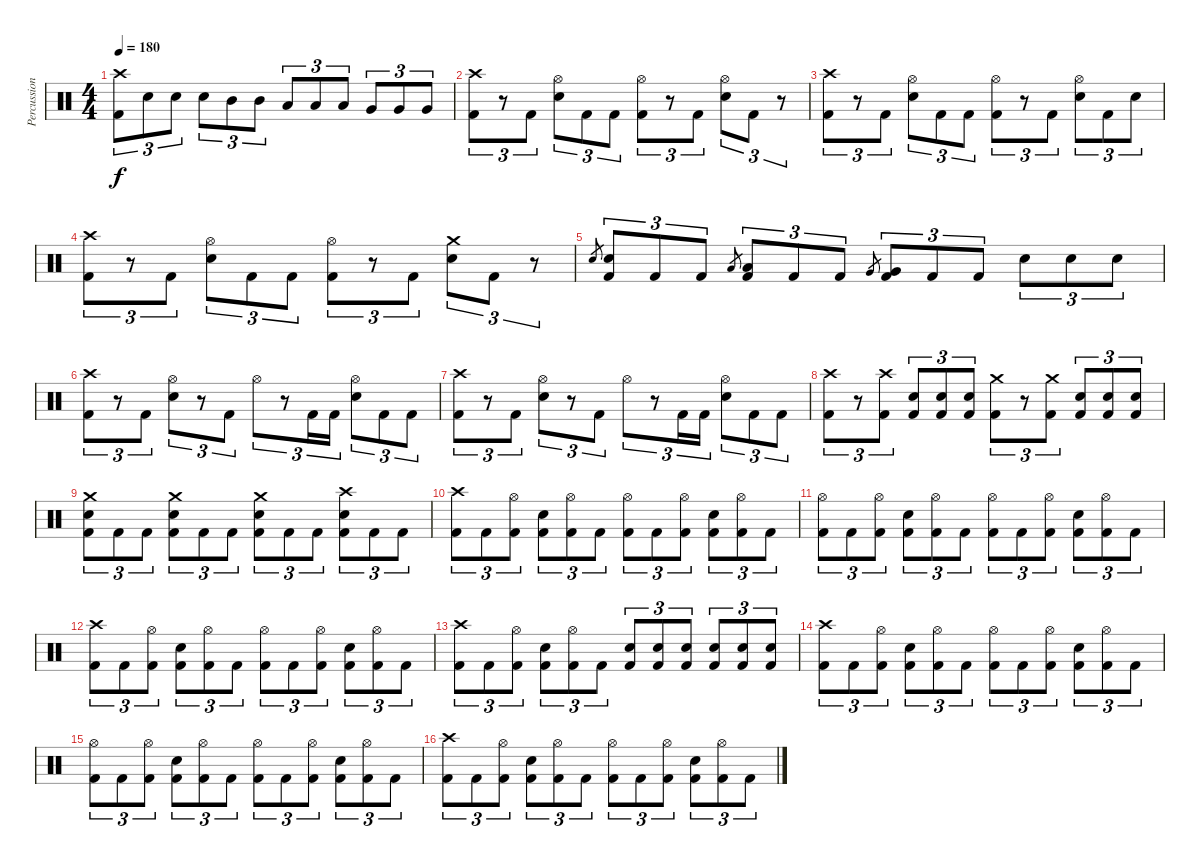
\track ("Percussion" "Percussion") {instrument percussion}
\staff {score}
\articulation defaults
\ts (4 4)
\tempo 180
\clef neutral
\ks c
("Crash high (hit)" "Kick (hit) 2").8{tu (3 2) dy f} "Electric Snare (hit)".8{tu (3 2)} "Electric Snare (hit)".8{tu (3 2)} "Electric Snare (hit)".8{tu (3 2)} "Mid Tom (hit)".8{tu (3 2)} "Mid Tom (hit)".8{tu (3 2)} "Low Tom (hit)".8{tu (3 2)} "Low Tom (hit)".8{tu (3 2)} "Low Tom (hit)".8{tu (3 2)} "Very Low Tom (hit)".8{tu (3 2)} "Very Low Tom (hit)".8{tu (3 2)} "Very Low Tom (hit)".8{tu (3 2)} |
("Crash high (hit)" "Kick (hit) 2").8{tu (3 2)} r.8{tu (3 2)} "Kick (hit) 2".8{tu (3 2)} ("Hi-Hat (open)" "Electric Snare (hit)").8{tu (3 2)} "Kick (hit) 2".8{tu (3 2)} "Kick (hit) 2".8{tu (3 2)} ("Hi-Hat (open)" "Kick (hit) 2").8{tu (3 2)} r.8{tu (3 2)} "Kick (hit) 2".8{tu (3 2)} ("Hi-Hat (open)" "Electric Snare (hit)").8{tu (3 2)} "Kick (hit) 2".8{tu (3 2)} r.8{tu (3 2)} |
("Crash high (hit)" "Kick (hit) 2").8{tu (3 2)} r.8{tu (3 2)} "Kick (hit) 2".8{tu (3 2)} ("Hi-Hat (open)" "Electric Snare (hit)").8{tu (3 2)} "Kick (hit) 2".8{tu (3 2)} "Kick (hit) 2".8{tu (3 2)} ("Hi-Hat (open)" "Kick (hit) 2").8{tu (3 2)} r.8{tu (3 2)} "Kick (hit) 2".8{tu (3 2)} ("Hi-Hat (open)" "Electric Snare (hit)").8{tu (3 2)} "Kick (hit) 2".8{tu (3 2)} "Electric Snare (hit)".8{tu (3 2)} |
("Crash high (hit)" "Kick (hit) 2").8{tu (3 2)} r.8{tu (3 2)} "Kick (hit) 2".8{tu (3 2)} ("Hi-Hat (open)" "Electric Snare (hit)").8{tu (3 2)} "Kick (hit) 2".8{tu (3 2)} "Kick (hit) 2".8{tu (3 2)} ("Hi-Hat (open)" "Kick (hit) 2").8{tu (3 2)} r.8{tu (3 2)} "Kick (hit) 2".8{tu (3 2)} ("Crash medium (hit)" "Electric Snare (hit)").8{tu (3 2)} "Kick (hit) 2".8{tu (3 2)} r.8{tu (3 2)} |
"Electric Snare (hit)".8{gr} ("Electric Snare (hit)" "Kick (hit) 2").8{tu (3 2)} "Kick (hit) 2".8{tu (3 2)} "Kick (hit) 2".8{tu (3 2)} "Low Tom (hit)".8{gr} ("Low Tom (hit)" "Kick (hit) 2").8{tu (3 2)} "Kick (hit) 2".8{tu (3 2)} "Kick (hit) 2".8{tu (3 2)} "Very Low Tom (hit)".8{gr} ("Very Low Tom (hit)" "Kick (hit) 2").8{tu (3 2)} "Kick (hit) 2".8{tu (3 2)} "Kick (hit) 2".8{tu (3 2)} "Electric Snare (hit)".8{tu (3 2)} "Electric Snare (hit)".8{tu (3 2)} "Electric Snare (hit)".8{tu (3 2)} |
("Crash high (hit)" "Kick (hit) 2").8{tu (3 2)} r.8{tu (3 2)} "Kick (hit) 2".8{tu (3 2)} ("Hi-Hat (open)" "Electric Snare (hit)").8{tu (3 2)} r.8{tu (3 2)} "Kick (hit) 2".8{tu (3 2)} "Hi-Hat (open)".8{tu (3 2)} r.8{tu (3 2)} "Kick (hit) 2".16{tu (3 2)} "Kick (hit) 2".16{tu (3 2)} ("Hi-Hat (open)" "Electric Snare (hit)").8{tu (3 2)} "Kick (hit) 2".8{tu (3 2)} "Kick (hit) 2".8{tu (3 2)} |
("Crash high (hit)" "Kick (hit) 2").8{tu (3 2)} r.8{tu (3 2)} "Kick (hit) 2".8{tu (3 2)} ("Hi-Hat (open)" "Electric Snare (hit)").8{tu (3 2)} r.8{tu (3 2)} "Kick (hit) 2".8{tu (3 2)} "Hi-Hat (open)".8{tu (3 2)} r.8{tu (3 2)} "Kick (hit) 2".16{tu (3 2)} "Kick (hit) 2".16{tu (3 2)} ("Hi-Hat (open)" "Electric Snare (hit)").8{tu (3 2)} "Kick (hit) 2".8{tu (3 2)} "Kick (hit) 2".8{tu (3 2)} |
("Crash high (hit)" "Kick (hit) 2").8{tu (3 2)} r.8{tu (3 2)} ("Crash high (hit)" "Kick (hit) 2").8{tu (3 2)} ("Electric Snare (hit)" "Kick (hit) 2").8{tu (3 2)} ("Electric Snare (hit)" "Kick (hit) 2").8{tu (3 2)} ("Electric Snare (hit)" "Kick (hit) 2").8{tu (3 2)} ("Crash medium (hit)" "Kick (hit) 2").8{tu (3 2)} r.8{tu (3 2)} ("Crash medium (hit)" "Kick (hit) 2").8{tu (3 2)} ("Electric Snare (hit)" "Kick (hit) 2").8{tu (3 2)} ("Electric Snare (hit)" "Kick (hit) 2").8{tu (3 2)} ("Electric Snare (hit)" "Kick (hit) 2").8{tu (3 2)} |
("Crash medium (hit)" "Electric Snare (hit)" "Kick (hit) 2").8{tu (3 2)} "Kick (hit) 2".8{tu (3 2)} "Kick (hit) 2".8{tu (3 2)} ("Crash medium (hit)" "Electric Snare (hit)" "Kick (hit) 2").8{tu (3 2)} "Kick (hit) 2".8{tu (3 2)} "Kick (hit) 2".8{tu (3 2)} ("Crash medium (hit)" "Electric Snare (hit)" "Kick (hit) 2").8{tu (3 2)} "Kick (hit) 2".8{tu (3 2)} "Kick (hit) 2".8{tu (3 2)} ("Crash high (hit)" "Electric Snare (hit)" "Kick (hit) 2").8{tu (3 2)} "Kick (hit) 2".8{tu (3 2)} "Kick (hit) 2".8{tu (3 2)} |
("Crash high (hit)" "Kick (hit) 2").8{tu (3 2)} "Kick (hit) 2".8{tu (3 2)} ("Hi-Hat (open)" "Kick (hit) 2").8{tu (3 2)} ("Electric Snare (hit)" "Kick (hit) 2").8{tu (3 2)} ("Hi-Hat (open)" "Kick (hit) 2").8{tu (3 2)} "Kick (hit) 2".8{tu (3 2)} ("Hi-Hat (open)" "Kick (hit) 2").8{tu (3 2)} "Kick (hit) 2".8{tu (3 2)} ("Hi-Hat (open)" "Kick (hit) 2").8{tu (3 2)} ("Electric Snare (hit)" "Kick (hit) 2").8{tu (3 2)} ("Hi-Hat (open)" "Kick (hit) 2").8{tu (3 2)} "Kick (hit) 2".8{tu (3 2)} |
("Hi-Hat (open)" "Kick (hit) 2").8{tu (3 2)} "Kick (hit) 2".8{tu (3 2)} ("Hi-Hat (open)" "Kick (hit) 2").8{tu (3 2)} ("Electric Snare (hit)" "Kick (hit) 2").8{tu (3 2)} ("Hi-Hat (open)" "Kick (hit) 2").8{tu (3 2)} "Kick (hit) 2".8{tu (3 2)} ("Hi-Hat (open)" "Kick (hit) 2").8{tu (3 2)} "Kick (hit) 2".8{tu (3 2)} ("Hi-Hat (open)" "Kick (hit) 2").8{tu (3 2)} ("Electric Snare (hit)" "Kick (hit) 2").8{tu (3 2)} ("Hi-Hat (open)" "Kick (hit) 2").8{tu (3 2)} "Kick (hit) 2".8{tu (3 2)} |
("Crash high (hit)" "Kick (hit) 2").8{tu (3 2)} "Kick (hit) 2".8{tu (3 2)} ("Hi-Hat (open)" "Kick (hit) 2").8{tu (3 2)} ("Electric Snare (hit)" "Kick (hit) 2").8{tu (3 2)} ("Hi-Hat (open)" "Kick (hit) 2").8{tu (3 2)} "Kick (hit) 2".8{tu (3 2)} ("Hi-Hat (open)" "Kick (hit) 2").8{tu (3 2)} "Kick (hit) 2".8{tu (3 2)} ("Hi-Hat (open)" "Kick (hit) 2").8{tu (3 2)} ("Electric Snare (hit)" "Kick (hit) 2").8{tu (3 2)} ("Hi-Hat (open)" "Kick (hit) 2").8{tu (3 2)} "Kick (hit) 2".8{tu (3 2)} |
("Crash high (hit)" "Kick (hit) 2").8{tu (3 2)} "Kick (hit) 2".8{tu (3 2)} ("Hi-Hat (open)" "Kick (hit) 2").8{tu (3 2)} ("Electric Snare (hit)" "Kick (hit) 2").8{tu (3 2)} ("Hi-Hat (open)" "Kick (hit) 2").8{tu (3 2)} "Kick (hit) 2".8{tu (3 2)} ("Electric Snare (hit)" "Kick (hit) 2").8{tu (3 2)} ("Electric Snare (hit)" "Kick (hit) 2").8{tu (3 2)} ("Electric Snare (hit)" "Kick (hit) 2").8{tu (3 2)} ("Electric Snare (hit)" "Kick (hit) 2").8{tu (3 2)} ("Electric Snare (hit)" "Kick (hit) 2").8{tu (3 2)} ("Electric Snare (hit)" "Kick (hit) 2").8{tu (3 2)} |
("Crash high (hit)" "Kick (hit) 2").8{tu (3 2)} "Kick (hit) 2".8{tu (3 2)} ("Hi-Hat (open)" "Kick (hit) 2").8{tu (3 2)} ("Electric Snare (hit)" "Kick (hit) 2").8{tu (3 2)} ("Hi-Hat (open)" "Kick (hit) 2").8{tu (3 2)} "Kick (hit) 2".8{tu (3 2)} ("Hi-Hat (open)" "Kick (hit) 2").8{tu (3 2)} "Kick (hit) 2".8{tu (3 2)} ("Hi-Hat (open)" "Kick (hit) 2").8{tu (3 2)} ("Electric Snare (hit)" "Kick (hit) 2").8{tu (3 2)} ("Hi-Hat (open)" "Kick (hit) 2").8{tu (3 2)} "Kick (hit) 2".8{tu (3 2)} |
("Hi-Hat (open)" "Kick (hit) 2").8{tu (3 2)} "Kick (hit) 2".8{tu (3 2)} ("Hi-Hat (open)" "Kick (hit) 2").8{tu (3 2)} ("Electric Snare (hit)" "Kick (hit) 2").8{tu (3 2)} ("Hi-Hat (open)" "Kick (hit) 2").8{tu (3 2)} "Kick (hit) 2".8{tu (3 2)} ("Hi-Hat (open)" "Kick (hit) 2").8{tu (3 2)} "Kick (hit) 2".8{tu (3 2)} ("Hi-Hat (open)" "Kick (hit) 2").8{tu (3 2)} ("Electric Snare (hit)" "Kick (hit) 2").8{tu (3 2)} ("Hi-Hat (open)" "Kick (hit) 2").8{tu (3 2)} "Kick (hit) 2".8{tu (3 2)} |
("Crash high (hit)" "Kick (hit) 2").8{tu (3 2)} "Kick (hit) 2".8{tu (3 2)} ("Hi-Hat (open)" "Kick (hit) 2").8{tu (3 2)} ("Electric Snare (hit)" "Kick (hit) 2").8{tu (3 2)} ("Hi-Hat (open)" "Kick (hit) 2").8{tu (3 2)} "Kick (hit) 2".8{tu (3 2)} ("Hi-Hat (open)" "Kick (hit) 2").8{tu (3 2)} "Kick (hit) 2".8{tu (3 2)} ("Hi-Hat (open)" "Kick (hit) 2").8{tu (3 2)} ("Electric Snare (hit)" "Kick (hit) 2").8{tu (3 2)} ("Hi-Hat (open)" "Kick (hit) 2").8{tu (3 2)} "Kick (hit) 2".8{tu (3 2)}
